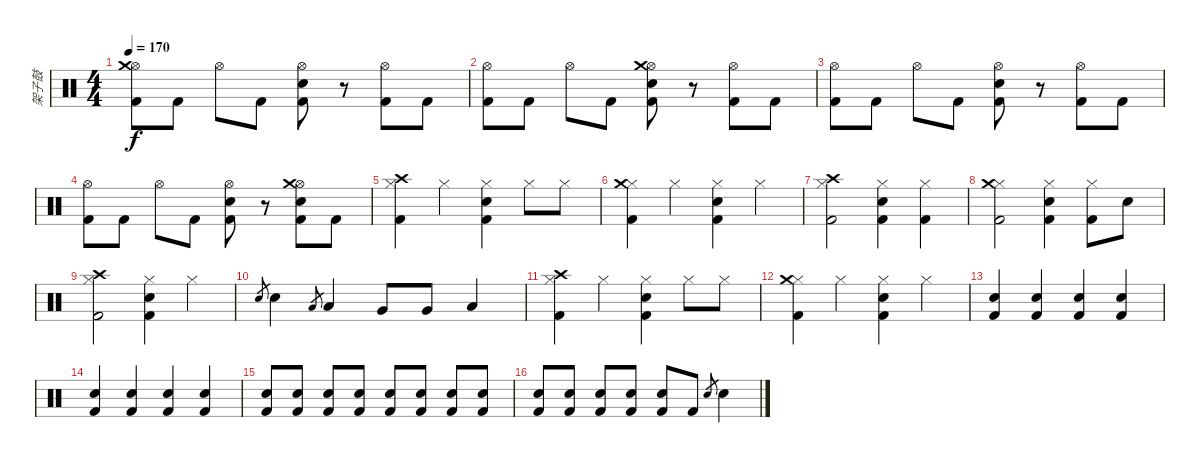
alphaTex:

\track ("架子鼓" "架子鼓") {instrument percussion}
\staff {score}
\articulation defaults
\ts (4 4)
\tempo 170
\clef neutral
\ks c
("Hi-Hat (open)" "Kick (hit) 2" "Crash medium (hit)").8{dy f} "Kick (hit) 2".8 "Hi-Hat (open)".8 "Kick (hit) 2".8 ("Hi-Hat (open)" "Snare (hit) 2" "Kick (hit) 2").8 r.8 ("Hi-Hat (open)" "Kick (hit) 2").8 "Kick (hit) 2".8 |
("Hi-Hat (open)" "Kick (hit) 2").8 "Kick (hit) 2".8 "Hi-Hat (open)".8 "Kick (hit) 2".8 ("Hi-Hat (open)" "Snare (hit) 2" "Kick (hit) 2" "Crash medium (hit)").8 r.8 ("Hi-Hat (open)" "Kick (hit) 2").8 "Kick (hit) 2".8 |
("Hi-Hat (open)" "Kick (hit) 2").8 "Kick (hit) 2".8 "Hi-Hat (open)".8 "Kick (hit) 2".8 ("Hi-Hat (open)" "Snare (hit) 2" "Kick (hit) 2").8 r.8 ("Hi-Hat (open)" "Kick (hit) 2").8 "Kick (hit) 2".8 |
("Hi-Hat (open)" "Kick (hit) 2").8 "Kick (hit) 2".8 "Hi-Hat (open)".8 "Kick (hit) 2".8 ("Hi-Hat (open)" "Snare (hit) 2" "Kick (hit) 2").8 r.8 ("Hi-Hat (open)" "Snare (hit) 2" "Kick (hit) 2" "Crash medium (hit)").8 "Kick (hit) 2".8 |
("Hi-Hat (closed)" "Kick (hit) 2" "Crash high (hit)").4 "Hi-Hat (closed)".4 ("Hi-Hat (closed)" "Snare (hit) 2" "Kick (hit) 2").4 "Hi-Hat (closed)".8 "Hi-Hat (closed)".8 |
("Hi-Hat (closed)" "Kick (hit) 2" "Crash medium (hit)").4 "Hi-Hat (closed)".4 ("Hi-Hat (closed)" "Snare (hit) 2" "Kick (hit) 2").4 "Hi-Hat (closed)".4 |
("Hi-Hat (closed)" "Kick (hit) 2" "Crash high (hit)").2 ("Hi-Hat (closed)" "Snare (hit) 2" "Kick (hit) 2").4 ("Hi-Hat (closed)" "Kick (hit) 2").4 |
("Hi-Hat (closed)" "Kick (hit) 2" "Crash medium (hit)").2 ("Hi-Hat (closed)" "Snare (hit) 2" "Kick (hit) 2").4 ("Hi-Hat (closed)" "Kick (hit) 2").8 "Snare (hit) 2".8 |
("Hi-Hat (closed)" "Kick (hit) 2" "Crash high (hit)").2 ("Hi-Hat (closed)" "Snare (hit) 2" "Kick (hit) 2").4 "Hi-Hat (closed)".4 |
"Snare (hit) 2".8{gr} "Snare (hit) 2".4 "Low Tom (hit)".8{gr} "Low Tom (hit)".4 "Very Low Tom (hit)".8 "Very Low Tom (hit)".8 "Low Floor Tom (hit)".4 |
("Hi-Hat (closed)" "Kick (hit) 2" "Crash high (hit)").4 "Hi-Hat (closed)".4 ("Hi-Hat (closed)" "Snare (hit) 2" "Kick (hit) 2").4 "Hi-Hat (closed)".8 "Hi-Hat (closed)".8 |
("Hi-Hat (closed)" "Kick (hit) 2" "Crash medium (hit)").4 "Hi-Hat (closed)".4 ("Hi-Hat (closed)" "Snare (hit) 2" "Kick (hit) 2").4 "Hi-Hat (closed)".4 |
("Snare (hit) 2" "Kick (hit) 2").4 ("Snare (hit) 2" "Kick (hit) 2").4 ("Snare (hit) 2" "Kick (hit) 2").4 ("Snare (hit) 2" "Kick (hit) 2").4 |
("Snare (hit) 2" "Kick (hit) 2").4 ("Snare (hit) 2" "Kick (hit) 2").4 ("Snare (hit) 2" "Kick (hit) 2").4 ("Snare (hit) 2" "Kick (hit) 2").4 |
("Snare (hit) 2" "Kick (hit) 2").8 ("Snare (hit) 2" "Kick (hit) 2").8 ("Snare (hit) 2" "Kick (hit) 2").8 ("Snare (hit) 2" "Kick (hit) 2").8 ("Snare (hit) 2" "Kick (hit) 2").8 ("Snare (hit) 2" "Kick (hit) 2").8 ("Snare (hit) 2" "Kick (hit) 2").8 ("Snare (hit) 2" "Kick (hit) 2").8 |
("Snare (hit) 2" "Kick (hit) 2").8 ("Snare (hit) 2" "Kick (hit) 2").8 ("Snare (hit) 2" "Kick (hit) 2").8 ("Snare (hit) 2" "Kick (hit) 2").8 ("Snare (hit) 2" "Kick (hit) 2").8 "Kick (hit) 2".8 "Snare (hit) 2".8{gr} "Snare (hit) 2".4
